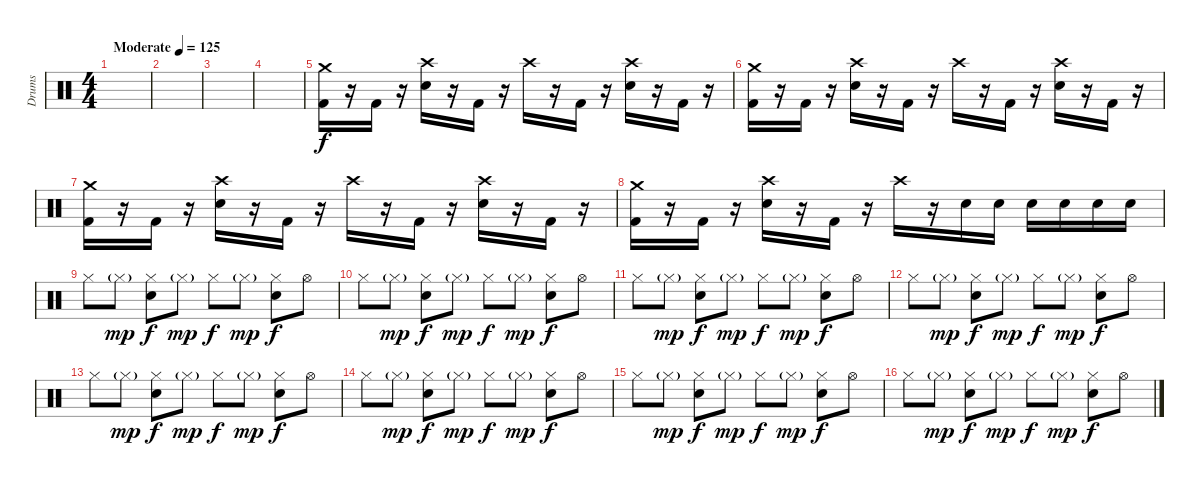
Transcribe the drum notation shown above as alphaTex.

\track ("Drums" "Drums") {instrument percussion}
\staff {score}
\articulation defaults
\ts (4 4)
\tempo (125 "Moderate")
\clef neutral
\ks c
|
|
|
|
("Crash medium (hit)" "Kick (hit) 2").16 r.16 "Kick (hit) 2".16 r.16 ("Crash high (hit)" "Snare (hit) 2").16 r.16 "Kick (hit) 2".16 r.16 "Crash high (hit)".16 r.16 "Kick (hit) 2".16 r.16 ("Crash high (hit)" "Snare (hit) 2").16 r.16 "Kick (hit) 2".16 r.16 |
("Crash medium (hit)" "Kick (hit) 2").16 r.16 "Kick (hit) 2".16 r.16 ("Crash high (hit)" "Snare (hit) 2").16 r.16 "Kick (hit) 2".16 r.16 "Crash high (hit)".16 r.16 "Kick (hit) 2".16 r.16 ("Crash high (hit)" "Snare (hit) 2").16 r.16 "Kick (hit) 2".16 r.16 |
("Crash medium (hit)" "Kick (hit) 2").16 r.16 "Kick (hit) 2".16 r.16 ("Crash high (hit)" "Snare (hit) 2").16 r.16 "Kick (hit) 2".16 r.16 "Crash high (hit)".16 r.16 "Kick (hit) 2".16 r.16 ("Crash high (hit)" "Snare (hit) 2").16 r.16 "Kick (hit) 2".16 r.16 |
("Crash medium (hit)" "Kick (hit) 2").16 r.16 "Kick (hit) 2".16 r.16 ("Crash high (hit)" "Snare (hit) 2").16 r.16 "Kick (hit) 2".16 r.16 "Crash high (hit)".16 r.16 "Snare (hit) 2".16 "Snare (hit) 2".16 "Snare (hit) 2".16 "Snare (hit) 2".16 "Snare (hit) 2".16 "Snare (hit) 2".16 |
"Hi-Hat (closed)".8 "Hi-Hat (closed)"{g}.8{dy mp} ("Hi-Hat (closed)" "Snare (hit) 2").8{dy f} "Hi-Hat (closed)"{g}.8{dy mp} "Hi-Hat (closed)".8{dy f} "Hi-Hat (closed)"{g}.8{dy mp} ("Hi-Hat (closed)" "Snare (hit) 2").8{dy f} "Hi-Hat (open)".8 |
"Hi-Hat (closed)".8 "Hi-Hat (closed)"{g}.8{dy mp} ("Hi-Hat (closed)" "Snare (hit) 2").8{dy f} "Hi-Hat (closed)"{g}.8{dy mp} "Hi-Hat (closed)".8{dy f} "Hi-Hat (closed)"{g}.8{dy mp} ("Hi-Hat (closed)" "Snare (hit) 2").8{dy f} "Hi-Hat (open)".8 |
"Hi-Hat (closed)".8 "Hi-Hat (closed)"{g}.8{dy mp} ("Hi-Hat (closed)" "Snare (hit) 2").8{dy f} "Hi-Hat (closed)"{g}.8{dy mp} "Hi-Hat (closed)".8{dy f} "Hi-Hat (closed)"{g}.8{dy mp} ("Hi-Hat (closed)" "Snare (hit) 2").8{dy f} "Hi-Hat (open)".8 |
"Hi-Hat (closed)".8 "Hi-Hat (closed)"{g}.8{dy mp} ("Hi-Hat (closed)" "Snare (hit) 2").8{dy f} "Hi-Hat (closed)"{g}.8{dy mp} "Hi-Hat (closed)".8{dy f} "Hi-Hat (closed)"{g}.8{dy mp} ("Hi-Hat (closed)" "Snare (hit) 2").8{dy f} "Hi-Hat (open)".8 |
"Hi-Hat (closed)".8 "Hi-Hat (closed)"{g}.8{dy mp} ("Hi-Hat (closed)" "Snare (hit) 2").8{dy f} "Hi-Hat (closed)"{g}.8{dy mp} "Hi-Hat (closed)".8{dy f} "Hi-Hat (closed)"{g}.8{dy mp} ("Hi-Hat (closed)" "Snare (hit) 2").8{dy f} "Hi-Hat (open)".8 |
"Hi-Hat (closed)".8 "Hi-Hat (closed)"{g}.8{dy mp} ("Hi-Hat (closed)" "Snare (hit) 2").8{dy f} "Hi-Hat (closed)"{g}.8{dy mp} "Hi-Hat (closed)".8{dy f} "Hi-Hat (closed)"{g}.8{dy mp} ("Hi-Hat (closed)" "Snare (hit) 2").8{dy f} "Hi-Hat (open)".8 |
"Hi-Hat (closed)".8 "Hi-Hat (closed)"{g}.8{dy mp} ("Hi-Hat (closed)" "Snare (hit) 2").8{dy f} "Hi-Hat (closed)"{g}.8{dy mp} "Hi-Hat (closed)".8{dy f} "Hi-Hat (closed)"{g}.8{dy mp} ("Hi-Hat (closed)" "Snare (hit) 2").8{dy f} "Hi-Hat (open)".8 |
"Hi-Hat (closed)".8 "Hi-Hat (closed)"{g}.8{dy mp} ("Hi-Hat (closed)" "Snare (hit) 2").8{dy f} "Hi-Hat (closed)"{g}.8{dy mp} "Hi-Hat (closed)".8{dy f} "Hi-Hat (closed)"{g}.8{dy mp} ("Hi-Hat (closed)" "Snare (hit) 2").8{dy f} "Hi-Hat (open)".8
